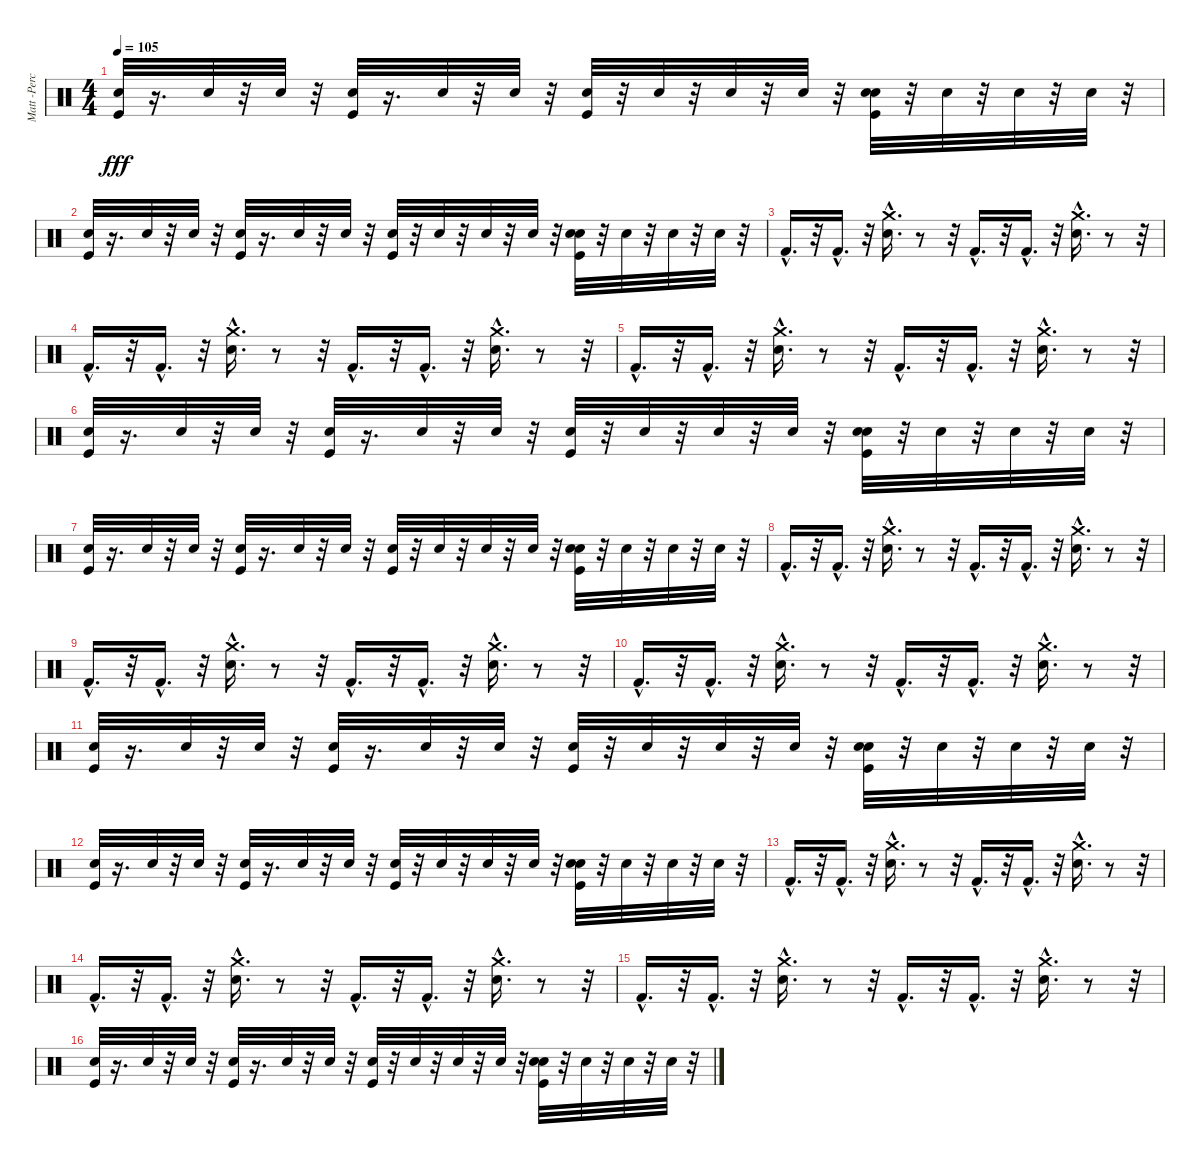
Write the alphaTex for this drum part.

\track ("Matt -Percussion-" "Matt -Perc") {instrument percussion}
\staff {score}
\articulation defaults
\ts (4 4)
\tempo 105
\clef neutral
\ks c
("Snare (hit) 2" "Kick (hit)").32{dy fff} r.16{d} "Snare (hit) 2".32 r.32 "Snare (hit) 2".32 r.32 ("Snare (hit) 2" "Kick (hit)").32 r.16{d} "Snare (hit) 2".32 r.32 "Snare (hit) 2".32 r.32 ("Snare (hit) 2" "Kick (hit)").32 r.32 "Snare (hit) 2".32 r.32 "Snare (hit) 2".32 r.32 "Snare (hit) 2".32 r.32 ("Electric Snare (hit)" "Snare (hit) 2" "Kick (hit)").32 r.32 "Snare (hit) 2".32 r.32 "Snare (hit) 2".32 r.32 "Snare (hit) 2".32 r.32 |
("Snare (hit) 2" "Kick (hit)").32 r.16{d} "Snare (hit) 2".32 r.32 "Snare (hit) 2".32 r.32 ("Snare (hit) 2" "Kick (hit)").32 r.16{d} "Snare (hit) 2".32 r.32 "Snare (hit) 2".32 r.32 ("Snare (hit) 2" "Kick (hit)").32 r.32 "Snare (hit) 2".32 r.32 "Snare (hit) 2".32 r.32 "Snare (hit) 2".32 r.32 ("Electric Snare (hit)" "Snare (hit) 2" "Kick (hit)").32 r.32 "Snare (hit) 2".32 r.32 "Snare (hit) 2".32 r.32 "Snare (hit) 2".32 r.32 |
"Kick (hit) 2"{hac}.16{d} r.32 "Kick (hit) 2"{hac}.16{d} r.32 ("Snare (hit) 2"{hac} "Crash medium (hit)"{hac}).16{d} r.8 r.32 "Kick (hit) 2"{hac}.16{d} r.32 "Kick (hit) 2"{hac}.16{d} r.32 ("Snare (hit) 2"{hac} "Crash medium (hit)"{hac}).16{d} r.8 r.32 |
"Kick (hit) 2"{hac}.16{d} r.32 "Kick (hit) 2"{hac}.16{d} r.32 ("Snare (hit) 2"{hac} "Crash medium (hit)"{hac}).16{d} r.8 r.32 "Kick (hit) 2"{hac}.16{d} r.32 "Kick (hit) 2"{hac}.16{d} r.32 ("Snare (hit) 2"{hac} "Crash medium (hit)"{hac}).16{d} r.8 r.32 |
"Kick (hit) 2"{hac}.16{d} r.32 "Kick (hit) 2"{hac}.16{d} r.32 ("Snare (hit) 2"{hac} "Crash medium (hit)"{hac}).16{d} r.8 r.32 "Kick (hit) 2"{hac}.16{d} r.32 "Kick (hit) 2"{hac}.16{d} r.32 ("Snare (hit) 2"{hac} "Crash medium (hit)"{hac}).16{d} r.8 r.32 |
("Snare (hit) 2" "Kick (hit)").32 r.16{d} "Snare (hit) 2".32 r.32 "Snare (hit) 2".32 r.32 ("Snare (hit) 2" "Kick (hit)").32 r.16{d} "Snare (hit) 2".32 r.32 "Snare (hit) 2".32 r.32 ("Snare (hit) 2" "Kick (hit)").32 r.32 "Snare (hit) 2".32 r.32 "Snare (hit) 2".32 r.32 "Snare (hit) 2".32 r.32 ("Electric Snare (hit)" "Snare (hit) 2" "Kick (hit)").32 r.32 "Snare (hit) 2".32 r.32 "Snare (hit) 2".32 r.32 "Snare (hit) 2".32 r.32 |
("Snare (hit) 2" "Kick (hit)").32 r.16{d} "Snare (hit) 2".32 r.32 "Snare (hit) 2".32 r.32 ("Snare (hit) 2" "Kick (hit)").32 r.16{d} "Snare (hit) 2".32 r.32 "Snare (hit) 2".32 r.32 ("Snare (hit) 2" "Kick (hit)").32 r.32 "Snare (hit) 2".32 r.32 "Snare (hit) 2".32 r.32 "Snare (hit) 2".32 r.32 ("Electric Snare (hit)" "Snare (hit) 2" "Kick (hit)").32 r.32 "Snare (hit) 2".32 r.32 "Snare (hit) 2".32 r.32 "Snare (hit) 2".32 r.32 |
"Kick (hit) 2"{hac}.16{d} r.32 "Kick (hit) 2"{hac}.16{d} r.32 ("Snare (hit) 2"{hac} "Crash medium (hit)"{hac}).16{d} r.8 r.32 "Kick (hit) 2"{hac}.16{d} r.32 "Kick (hit) 2"{hac}.16{d} r.32 ("Snare (hit) 2"{hac} "Crash medium (hit)"{hac}).16{d} r.8 r.32 |
"Kick (hit) 2"{hac}.16{d} r.32 "Kick (hit) 2"{hac}.16{d} r.32 ("Snare (hit) 2"{hac} "Crash medium (hit)"{hac}).16{d} r.8 r.32 "Kick (hit) 2"{hac}.16{d} r.32 "Kick (hit) 2"{hac}.16{d} r.32 ("Snare (hit) 2"{hac} "Crash medium (hit)"{hac}).16{d} r.8 r.32 |
"Kick (hit) 2"{hac}.16{d} r.32 "Kick (hit) 2"{hac}.16{d} r.32 ("Snare (hit) 2"{hac} "Crash medium (hit)"{hac}).16{d} r.8 r.32 "Kick (hit) 2"{hac}.16{d} r.32 "Kick (hit) 2"{hac}.16{d} r.32 ("Snare (hit) 2"{hac} "Crash medium (hit)"{hac}).16{d} r.8 r.32 |
("Snare (hit) 2" "Kick (hit)").32 r.16{d} "Snare (hit) 2".32 r.32 "Snare (hit) 2".32 r.32 ("Snare (hit) 2" "Kick (hit)").32 r.16{d} "Snare (hit) 2".32 r.32 "Snare (hit) 2".32 r.32 ("Snare (hit) 2" "Kick (hit)").32 r.32 "Snare (hit) 2".32 r.32 "Snare (hit) 2".32 r.32 "Snare (hit) 2".32 r.32 ("Electric Snare (hit)" "Snare (hit) 2" "Kick (hit)").32 r.32 "Snare (hit) 2".32 r.32 "Snare (hit) 2".32 r.32 "Snare (hit) 2".32 r.32 |
("Snare (hit) 2" "Kick (hit)").32 r.16{d} "Snare (hit) 2".32 r.32 "Snare (hit) 2".32 r.32 ("Snare (hit) 2" "Kick (hit)").32 r.16{d} "Snare (hit) 2".32 r.32 "Snare (hit) 2".32 r.32 ("Snare (hit) 2" "Kick (hit)").32 r.32 "Snare (hit) 2".32 r.32 "Snare (hit) 2".32 r.32 "Snare (hit) 2".32 r.32 ("Electric Snare (hit)" "Snare (hit) 2" "Kick (hit)").32 r.32 "Snare (hit) 2".32 r.32 "Snare (hit) 2".32 r.32 "Snare (hit) 2".32 r.32 |
"Kick (hit) 2"{hac}.16{d} r.32 "Kick (hit) 2"{hac}.16{d} r.32 ("Snare (hit) 2"{hac} "Crash medium (hit)"{hac}).16{d} r.8 r.32 "Kick (hit) 2"{hac}.16{d} r.32 "Kick (hit) 2"{hac}.16{d} r.32 ("Snare (hit) 2"{hac} "Crash medium (hit)"{hac}).16{d} r.8 r.32 |
"Kick (hit) 2"{hac}.16{d} r.32 "Kick (hit) 2"{hac}.16{d} r.32 ("Snare (hit) 2"{hac} "Crash medium (hit)"{hac}).16{d} r.8 r.32 "Kick (hit) 2"{hac}.16{d} r.32 "Kick (hit) 2"{hac}.16{d} r.32 ("Snare (hit) 2"{hac} "Crash medium (hit)"{hac}).16{d} r.8 r.32 |
"Kick (hit) 2"{hac}.16{d} r.32 "Kick (hit) 2"{hac}.16{d} r.32 ("Snare (hit) 2"{hac} "Crash medium (hit)"{hac}).16{d} r.8 r.32 "Kick (hit) 2"{hac}.16{d} r.32 "Kick (hit) 2"{hac}.16{d} r.32 ("Snare (hit) 2"{hac} "Crash medium (hit)"{hac}).16{d} r.8 r.32 |
("Snare (hit) 2" "Kick (hit)").32 r.16{d} "Snare (hit) 2".32 r.32 "Snare (hit) 2".32 r.32 ("Snare (hit) 2" "Kick (hit)").32 r.16{d} "Snare (hit) 2".32 r.32 "Snare (hit) 2".32 r.32 ("Snare (hit) 2" "Kick (hit)").32 r.32 "Snare (hit) 2".32 r.32 "Snare (hit) 2".32 r.32 "Snare (hit) 2".32 r.32 ("Electric Snare (hit)" "Snare (hit) 2" "Kick (hit)").32 r.32 "Snare (hit) 2".32 r.32 "Snare (hit) 2".32 r.32 "Snare (hit) 2".32 r.32
